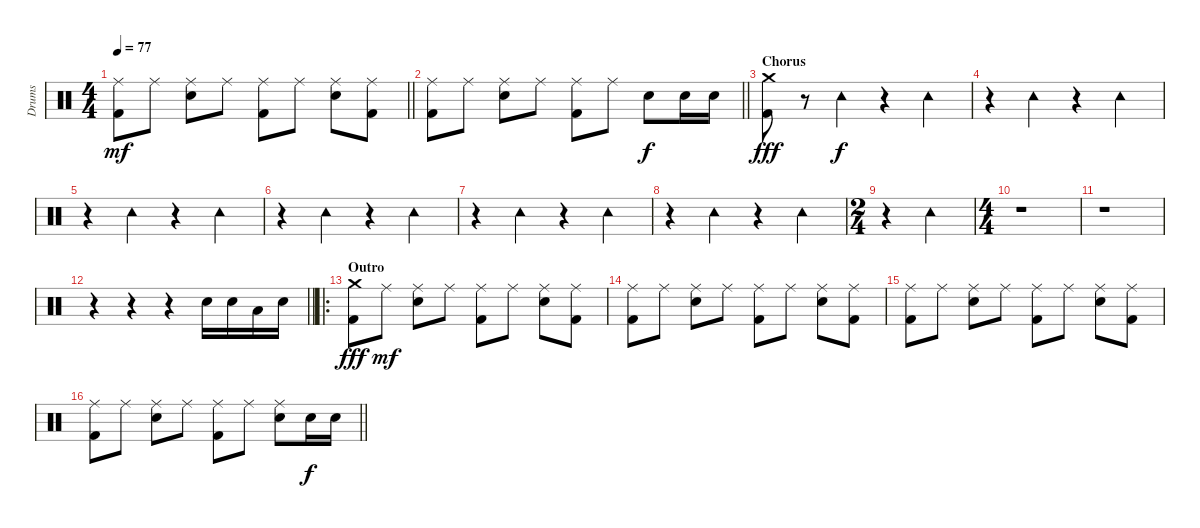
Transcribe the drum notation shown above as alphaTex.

\track ("Drums" "Drums") {instrument percussion}
\staff {score}
\articulation defaults
\ts (4 4)
\tempo 77
\clef neutral
\barLineRight lightlight
\ks c
("Ride (middle)" "Kick (hit) 2").8{dy mf} "Ride (middle)".8 ("Ride (middle)" "Electric Snare (hit)").8 "Ride (middle)".8 ("Ride (middle)" "Kick (hit) 2").8 "Ride (middle)".8 ("Ride (middle)" "Electric Snare (hit)").8 ("Ride (middle)" "Kick (hit) 2").8 |
\barLineRight lightlight
("Ride (middle)" "Kick (hit) 2").8 "Ride (middle)".8 ("Ride (middle)" "Electric Snare (hit)").8 "Ride (middle)".8 ("Ride (middle)" "Kick (hit) 2").8 "Ride (middle)".8 "Electric Snare (hit)".8{dy f} "Electric Snare (hit)".16 "Electric Snare (hit)".16 |
\section ("" "Chorus")
("Crash medium (hit)" "Kick (hit) 2").8{dy fff} r.8 "Tambourine (hit)".4{dy f} r.4 "Tambourine (hit)".4 |
r.4 "Tambourine (hit)".4 r.4 "Tambourine (hit)".4 |
r.4 "Tambourine (hit)".4 r.4 "Tambourine (hit)".4 |
r.4 "Tambourine (hit)".4 r.4 "Tambourine (hit)".4 |
r.4 "Tambourine (hit)".4 r.4 "Tambourine (hit)".4 |
r.4 "Tambourine (hit)".4 r.4 "Tambourine (hit)".4 |
\ts (2 4)
r.4 "Tambourine (hit)".4 |
\ts (4 4)
r.1 |
r.1 |
\barLineRight lightlight
r.4 r.4 r.4 "Electric Snare (hit)".16 "Electric Snare (hit)".16 "Low Tom (hit)".16 "Electric Snare (hit)".16 |
\ro
\section ("" "Outro")
("Crash medium (hit)" "Kick (hit) 2").8{dy fff} "Ride (middle)".8{dy mf} ("Ride (middle)" "Electric Snare (hit)").8 "Ride (middle)".8 ("Ride (middle)" "Kick (hit) 2").8 "Ride (middle)".8 ("Ride (middle)" "Electric Snare (hit)").8 ("Ride (middle)" "Kick (hit) 2").8 |
("Ride (middle)" "Kick (hit) 2").8 "Ride (middle)".8 ("Ride (middle)" "Electric Snare (hit)").8 "Ride (middle)".8 ("Ride (middle)" "Kick (hit) 2").8 "Ride (middle)".8 ("Ride (middle)" "Electric Snare (hit)").8 ("Ride (middle)" "Kick (hit) 2").8 |
("Ride (middle)" "Kick (hit) 2").8 "Ride (middle)".8 ("Ride (middle)" "Electric Snare (hit)").8 "Ride (middle)".8 ("Ride (middle)" "Kick (hit) 2").8 "Ride (middle)".8 ("Ride (middle)" "Electric Snare (hit)").8 ("Ride (middle)" "Kick (hit) 2").8 |
\barLineRight lightlight
("Ride (middle)" "Kick (hit) 2").8 "Ride (middle)".8 ("Ride (middle)" "Electric Snare (hit)").8 "Ride (middle)".8 ("Ride (middle)" "Kick (hit) 2").8 "Ride (middle)".8 ("Ride (middle)" "Electric Snare (hit)").8 "Electric Snare (hit)".16{dy f} "Electric Snare (hit)".16
